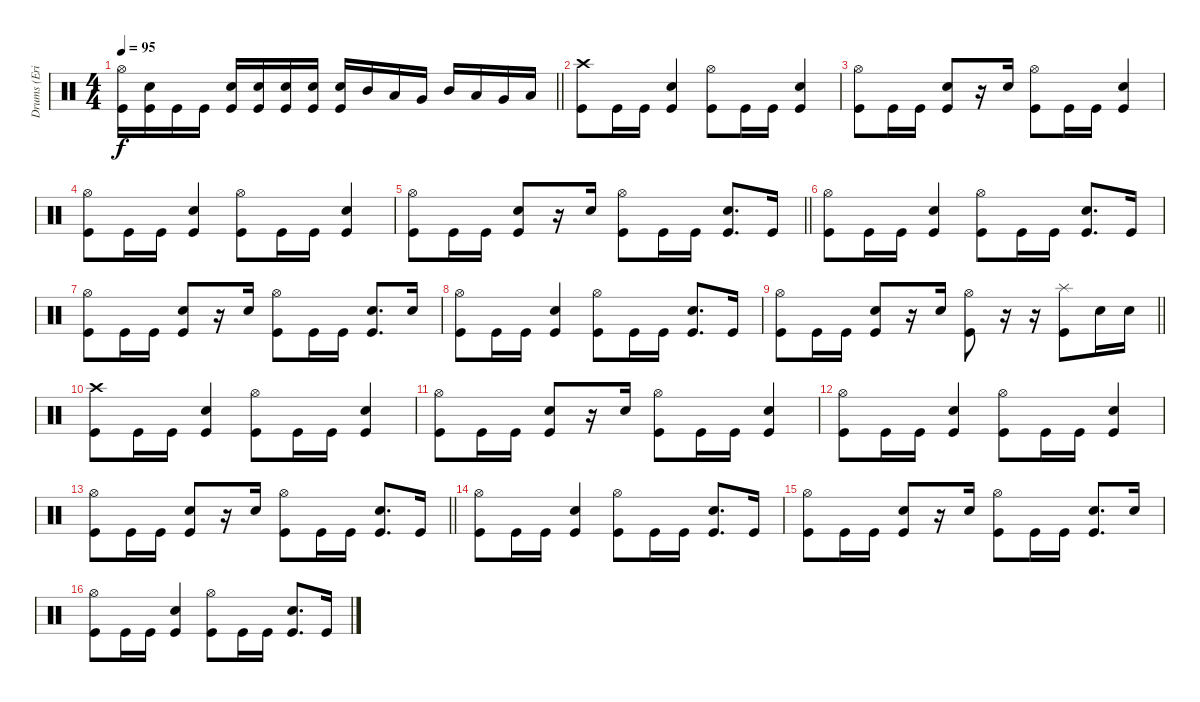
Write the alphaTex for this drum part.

\track ("Drums (Eric Singer)" "Drums (Eri") {instrument percussion}
\staff {score}
\articulation defaults
\ts (4 4)
\tempo 95
\clef neutral
\barLineRight lightlight
\ks c
("Kick (hit)" "Hi-Hat (open)").16{dy f} ("Snare (hit) 2" "Kick (hit)").16 "Kick (hit)".16 "Kick (hit)".16 ("Snare (hit) 2" "Kick (hit)").16 ("Snare (hit) 2" "Kick (hit)").16 ("Snare (hit) 2" "Kick (hit)").16 ("Snare (hit) 2" "Kick (hit)").16 ("Snare (hit) 2" "Kick (hit)").16 "Mid Tom (hit)".16 "Low Tom (hit)".16 "Very Low Tom (hit)".16 "Mid Tom (hit)".16 "Low Tom (hit)".16 "Very Low Tom (hit)".16 "Low Floor Tom (hit)".16 |
("Crash high (hit)" "Kick (hit)").8 "Kick (hit)".16 "Kick (hit)".16 ("Snare (hit) 2" "Kick (hit)").4 ("Kick (hit)" "Hi-Hat (open)").8 "Kick (hit)".16 "Kick (hit)".16 ("Snare (hit) 2" "Kick (hit)").4 |
("Kick (hit)" "Hi-Hat (open)").8 "Kick (hit)".16 "Kick (hit)".16 ("Snare (hit) 2" "Kick (hit)").8 r.16 "Snare (hit) 2".16 ("Kick (hit)" "Hi-Hat (open)").8 "Kick (hit)".16 "Kick (hit)".16 ("Snare (hit) 2" "Kick (hit)").4 |
("Kick (hit)" "Hi-Hat (open)").8 "Kick (hit)".16 "Kick (hit)".16 ("Snare (hit) 2" "Kick (hit)").4 ("Kick (hit)" "Hi-Hat (open)").8 "Kick (hit)".16 "Kick (hit)".16 ("Snare (hit) 2" "Kick (hit)").4 |
\barLineRight lightlight
("Kick (hit)" "Hi-Hat (open)").8 "Kick (hit)".16 "Kick (hit)".16 ("Snare (hit) 2" "Kick (hit)").8 r.16 "Snare (hit) 2".16 ("Kick (hit)" "Hi-Hat (open)").8 "Kick (hit)".16 "Kick (hit)".16 ("Snare (hit) 2" "Kick (hit)").8{d} "Kick (hit)".16 |
("Kick (hit)" "Hi-Hat (open)").8 "Kick (hit)".16 "Kick (hit)".16 ("Snare (hit) 2" "Kick (hit)").4 ("Kick (hit)" "Hi-Hat (open)").8 "Kick (hit)".16 "Kick (hit)".16 ("Snare (hit) 2" "Kick (hit)").8{d} "Kick (hit)".16 |
("Kick (hit)" "Hi-Hat (open)").8 "Kick (hit)".16 "Kick (hit)".16 ("Snare (hit) 2" "Kick (hit)").8 r.16 "Snare (hit) 2".16 ("Kick (hit)" "Hi-Hat (open)").8 "Kick (hit)".16 "Kick (hit)".16 ("Snare (hit) 2" "Kick (hit)").8{d} "Snare (hit) 2".16 |
("Kick (hit)" "Hi-Hat (open)").8 "Kick (hit)".16 "Kick (hit)".16 ("Snare (hit) 2" "Kick (hit)").4 ("Kick (hit)" "Hi-Hat (open)").8 "Kick (hit)".16 "Kick (hit)".16 ("Snare (hit) 2" "Kick (hit)").8{d} "Kick (hit)".16 |
\barLineRight lightlight
("Kick (hit)" "Hi-Hat (open)").8 "Kick (hit)".16 "Kick (hit)".16 ("Snare (hit) 2" "Kick (hit)").8 r.16 "Snare (hit) 2".16 ("Kick (hit)" "Hi-Hat (open)").8 r.16 r.16 ("Kick (hit)" "Splash (hit)").8 "Snare (hit) 2".16 "Snare (hit) 2".16 |
("Crash high (hit)" "Kick (hit)").8 "Kick (hit)".16 "Kick (hit)".16 ("Snare (hit) 2" "Kick (hit)").4 ("Kick (hit)" "Hi-Hat (open)").8 "Kick (hit)".16 "Kick (hit)".16 ("Snare (hit) 2" "Kick (hit)").4 |
("Kick (hit)" "Hi-Hat (open)").8 "Kick (hit)".16 "Kick (hit)".16 ("Snare (hit) 2" "Kick (hit)").8 r.16 "Snare (hit) 2".16 ("Kick (hit)" "Hi-Hat (open)").8 "Kick (hit)".16 "Kick (hit)".16 ("Snare (hit) 2" "Kick (hit)").4 |
("Kick (hit)" "Hi-Hat (open)").8 "Kick (hit)".16 "Kick (hit)".16 ("Snare (hit) 2" "Kick (hit)").4 ("Kick (hit)" "Hi-Hat (open)").8 "Kick (hit)".16 "Kick (hit)".16 ("Snare (hit) 2" "Kick (hit)").4 |
\barLineRight lightlight
("Kick (hit)" "Hi-Hat (open)").8 "Kick (hit)".16 "Kick (hit)".16 ("Snare (hit) 2" "Kick (hit)").8 r.16 "Snare (hit) 2".16 ("Kick (hit)" "Hi-Hat (open)").8 "Kick (hit)".16 "Kick (hit)".16 ("Snare (hit) 2" "Kick (hit)").8{d} "Kick (hit)".16 |
("Kick (hit)" "Hi-Hat (open)").8 "Kick (hit)".16 "Kick (hit)".16 ("Snare (hit) 2" "Kick (hit)").4 ("Kick (hit)" "Hi-Hat (open)").8 "Kick (hit)".16 "Kick (hit)".16 ("Snare (hit) 2" "Kick (hit)").8{d} "Kick (hit)".16 |
("Kick (hit)" "Hi-Hat (open)").8 "Kick (hit)".16 "Kick (hit)".16 ("Snare (hit) 2" "Kick (hit)").8 r.16 "Snare (hit) 2".16 ("Kick (hit)" "Hi-Hat (open)").8 "Kick (hit)".16 "Kick (hit)".16 ("Snare (hit) 2" "Kick (hit)").8{d} "Snare (hit) 2".16 |
("Kick (hit)" "Hi-Hat (open)").8 "Kick (hit)".16 "Kick (hit)".16 ("Snare (hit) 2" "Kick (hit)").4 ("Kick (hit)" "Hi-Hat (open)").8 "Kick (hit)".16 "Kick (hit)".16 ("Snare (hit) 2" "Kick (hit)").8{d} "Kick (hit)".16
